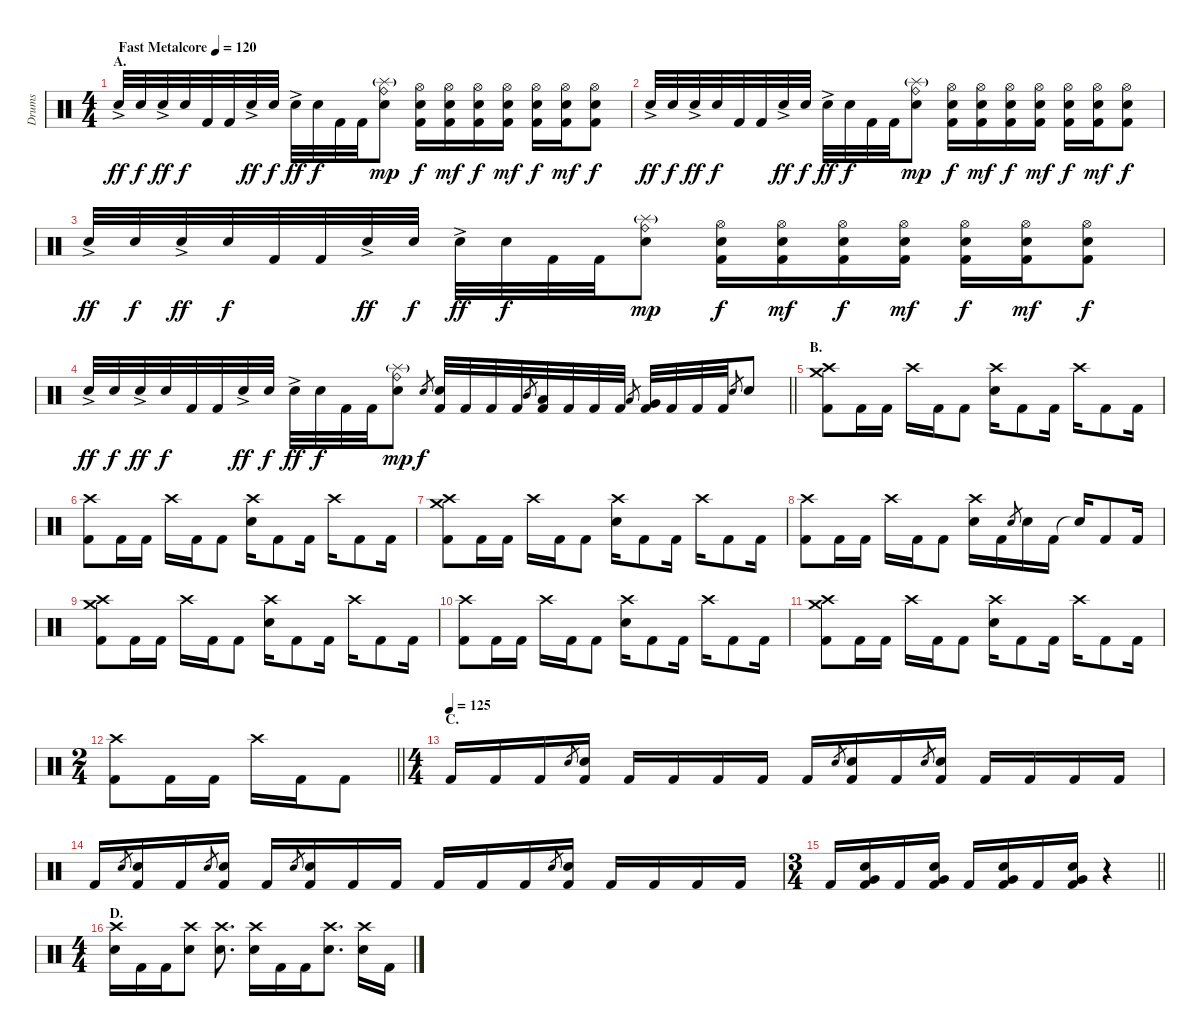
\track ("Drums" "Drums") {instrument percussion}
\staff {score}
\articulation defaults
\ts (4 4)
\section ("" "A.")
\tempo (120 "Fast Metalcore")
\clef neutral
\ks c "Electric Snare (hit)"{ac}.32{dy ff} "Electric Snare (hit)".32{dy f} "Electric Snare (hit)"{ac}.32{dy ff} "Electric Snare (hit)".32{dy f} "Kick (hit) 2".32 "Kick (hit) 2".32 "Electric Snare (hit)"{ac}.32{dy ff} "Electric Snare (hit)".32{dy f} "Electric Snare (hit)"{ac}.32{dy ff} "Electric Snare (hit)".32{dy f} "Kick (hit) 2".32 "Kick (hit) 2".32
("Splash (hit)"{g} "Ride (bell)" "Electric Snare (hit)").8{dy mp} ("Hi-Hat (open)" "Electric Snare (hit)" "Kick (hit) 2").16{dy f} ("Hi-Hat (open)" "Electric Snare (hit)" "Kick (hit) 2").16{dy mf} ("Hi-Hat (open)" "Electric Snare (hit)" "Kick (hit) 2").16{dy f} ("Hi-Hat (open)" "Electric Snare (hit)" "Kick (hit) 2").16{dy mf} ("Hi-Hat (open)" "Electric Snare (hit)" "Kick (hit) 2").16{dy f} ("Hi-Hat (open)" "Electric Snare (hit)" "Kick (hit) 2").16{dy mf} ("Hi-Hat (open)" "Electric Snare (hit)" "Kick (hit) 2").8{dy f} |
"Electric Snare (hit)"{ac}.32{dy ff} "Electric Snare (hit)".32{dy f} "Electric Snare (hit)"{ac}.32{dy ff} "Electric Snare (hit)".32{dy f} "Kick (hit) 2".32 "Kick (hit) 2".32 "Electric Snare (hit)"{ac}.32{dy ff} "Electric Snare (hit)".32{dy f} "Electric Snare (hit)"{ac}.32{dy ff} "Electric Snare (hit)".32{dy f} "Kick (hit) 2".32 "Kick (hit) 2".32 ("Splash (hit)"{g} "Ride (bell)" "Electric Snare (hit)").8{dy mp} ("Hi-Hat (open)" "Electric Snare (hit)" "Kick (hit) 2").16{dy f} ("Hi-Hat (open)" "Electric Snare (hit)" "Kick (hit) 2").16{dy mf} ("Hi-Hat (open)" "Electric Snare (hit)" "Kick (hit) 2").16{dy f} ("Hi-Hat (open)" "Electric Snare (hit)" "Kick (hit) 2").16{dy mf} ("Hi-Hat (open)" "Electric Snare (hit)" "Kick (hit) 2").16{dy f} ("Hi-Hat (open)" "Electric Snare (hit)" "Kick (hit) 2").16{dy mf} ("Hi-Hat (open)" "Electric Snare (hit)" "Kick (hit) 2").8{dy f} |
"Electric Snare (hit)"{ac}.32{dy ff} "Electric Snare (hit)".32{dy f} "Electric Snare (hit)"{ac}.32{dy ff} "Electric Snare (hit)".32{dy f} "Kick (hit) 2".32 "Kick (hit) 2".32 "Electric Snare (hit)"{ac}.32{dy ff} "Electric Snare (hit)".32{dy f} "Electric Snare (hit)"{ac}.32{dy ff} "Electric Snare (hit)".32{dy f} "Kick (hit) 2".32 "Kick (hit) 2".32 ("Splash (hit)"{g} "Ride (bell)" "Electric Snare (hit)").8{dy mp} ("Hi-Hat (open)" "Electric Snare (hit)" "Kick (hit) 2").16{dy f} ("Hi-Hat (open)" "Electric Snare (hit)" "Kick (hit) 2").16{dy mf} ("Hi-Hat (open)" "Electric Snare (hit)" "Kick (hit) 2").16{dy f} ("Hi-Hat (open)" "Electric Snare (hit)" "Kick (hit) 2").16{dy mf} ("Hi-Hat (open)" "Electric Snare (hit)" "Kick (hit) 2").16{dy f} ("Hi-Hat (open)" "Electric Snare (hit)" "Kick (hit) 2").16{dy mf} ("Hi-Hat (open)" "Electric Snare (hit)" "Kick (hit) 2").8{dy f} |
\barLineRight lightlight "Electric Snare (hit)"{ac}.32{dy ff} "Electric Snare (hit)".32{dy f} "Electric Snare (hit)"{ac}.32{dy ff} "Electric Snare (hit)".32{dy f} "Kick (hit) 2".32 "Kick (hit) 2".32 "Electric Snare (hit)"{ac}.32{dy ff} "Electric Snare (hit)".32{dy f} "Electric Snare (hit)"{ac}.32{dy ff} "Electric Snare (hit)".32{dy f} "Kick (hit) 2".32 "Kick (hit) 2".32
("Splash (hit)"{g} "Ride (bell)" "Electric Snare (hit)").8{dy mp} "Electric Snare (hit)".8{gr dy f} ("Electric Snare (hit)" "Kick (hit) 2").32 "Kick (hit) 2".32 "Kick (hit) 2".32 "Kick (hit) 2".32 "Mid Tom (hit)".8{gr} ("Low Tom (hit)" "Kick (hit) 2").32 "Kick (hit) 2".32 "Kick (hit) 2".32 "Kick (hit) 2".32 "Low Tom (hit)".8{gr} ("Very Low Tom (hit)" "Kick (hit) 2").32 "Kick (hit) 2".32 "Kick (hit) 2".32 "Kick (hit) 2".32 "Electric Snare (hit)".8{gr} "Electric Snare (hit)".8 |
\section ("" "B.")
("Crash medium (hit)" "Crash high (hit)" "Kick (hit) 2").8 "Kick (hit) 2".16 "Kick (hit) 2".16 "Crash high (hit)".16 "Kick (hit) 2".16 "Kick (hit) 2".8 ("Crash high (hit)" "Electric Snare (hit)").16 "Kick (hit) 2".8 "Kick (hit) 2".16 "Crash high (hit)".16 "Kick (hit) 2".8 "Kick (hit) 2".16 |
("Crash high (hit)" "Kick (hit) 2").8 "Kick (hit) 2".16 "Kick (hit) 2".16 "Crash high (hit)".16 "Kick (hit) 2".16 "Kick (hit) 2".8 ("Crash high (hit)" "Electric Snare (hit)").16 "Kick (hit) 2".8 "Kick (hit) 2".16 "Crash high (hit)".16 "Kick (hit) 2".8 "Kick (hit) 2".16 |
("Crash medium (hit)" "Crash high (hit)" "Kick (hit) 2").8 "Kick (hit) 2".16 "Kick (hit) 2".16 "Crash high (hit)".16 "Kick (hit) 2".16 "Kick (hit) 2".8 ("Crash high (hit)" "Electric Snare (hit)").16 "Kick (hit) 2".8 "Kick (hit) 2".16 "Crash high (hit)".16 "Kick (hit) 2".8 "Kick (hit) 2".16 |
("Crash high (hit)" "Kick (hit) 2").8 "Kick (hit) 2".16 "Kick (hit) 2".16 "Crash high (hit)".16 "Kick (hit) 2".16 "Kick (hit) 2".8 ("Crash high (hit)" "Electric Snare (hit)").16 "Kick (hit) 2".16 "Electric Snare (hit)".8{gr} "Electric Snare (hit)".16 "Kick (hit) 2".16 "Snare (hit)"{t}.16 "Kick (hit) 2".8 "Kick (hit) 2".16 |
("Crash medium (hit)" "Crash high (hit)" "Kick (hit) 2").8 "Kick (hit) 2".16 "Kick (hit) 2".16 "Crash high (hit)".16 "Kick (hit) 2".16 "Kick (hit) 2".8 ("Crash high (hit)" "Electric Snare (hit)").16 "Kick (hit) 2".8 "Kick (hit) 2".16 "Crash high (hit)".16 "Kick (hit) 2".8 "Kick (hit) 2".16 |
("Crash high (hit)" "Kick (hit) 2").8 "Kick (hit) 2".16 "Kick (hit) 2".16 "Crash high (hit)".16 "Kick (hit) 2".16 "Kick (hit) 2".8 ("Crash high (hit)" "Electric Snare (hit)").16 "Kick (hit) 2".8 "Kick (hit) 2".16 "Crash high (hit)".16 "Kick (hit) 2".8 "Kick (hit) 2".16 |
("Crash medium (hit)" "Crash high (hit)" "Kick (hit) 2").8 "Kick (hit) 2".16 "Kick (hit) 2".16 "Crash high (hit)".16 "Kick (hit) 2".16 "Kick (hit) 2".8 ("Crash high (hit)" "Electric Snare (hit)").16 "Kick (hit) 2".8 "Kick (hit) 2".16 "Crash high (hit)".16 "Kick (hit) 2".8 "Kick (hit) 2".16 |
\ts (2 4)
\barLineRight lightlight
("Crash high (hit)" "Kick (hit) 2").8 "Kick (hit) 2".16 "Kick (hit) 2".16 "Crash high (hit)".16 "Kick (hit) 2".16 "Kick (hit) 2".8 |
\ts (4 4)
\section ("" "C.")
\tempo (125)
"Kick (hit) 2".16 "Kick (hit) 2".16 "Kick (hit) 2".16 "Electric Snare (hit)".8{gr} ("Electric Snare (hit)" "Kick (hit) 2").16 "Kick (hit) 2".16 "Kick (hit) 2".16 "Kick (hit) 2".16 "Kick (hit) 2".16 "Kick (hit) 2".16 "Electric Snare (hit)".8{gr} ("Electric Snare (hit)" "Kick (hit) 2").16 "Kick (hit) 2".16 "Electric Snare (hit)".8{gr} ("Electric Snare (hit)" "Kick (hit) 2").16 "Kick (hit) 2".16 "Kick (hit) 2".16 "Kick (hit) 2".16 "Kick (hit) 2".16 |
"Kick (hit) 2".16 "Electric Snare (hit)".8{gr} ("Electric Snare (hit)" "Kick (hit) 2").16 "Kick (hit) 2".16 "Electric Snare (hit)".8{gr} ("Electric Snare (hit)" "Kick (hit) 2").16 "Kick (hit) 2".16 "Electric Snare (hit)".8{gr} ("Electric Snare (hit)" "Kick (hit) 2").16 "Kick (hit) 2".16 "Kick (hit) 2".16 "Kick (hit) 2".16 "Kick (hit) 2".16 "Kick (hit) 2".16 "Electric Snare (hit)".8{gr} ("Electric Snare (hit)" "Kick (hit) 2").16 "Kick (hit) 2".16 "Kick (hit) 2".16 "Kick (hit) 2".16 "Kick (hit) 2".16 |
\ts (3 4)
\barLineRight lightlight "Kick (hit) 2".16
("Very Low Tom (hit)" "Electric Snare (hit)" "Kick (hit) 2").16 "Kick (hit) 2".16 ("Very Low Tom (hit)" "Electric Snare (hit)" "Kick (hit) 2").16 "Kick (hit) 2".16 ("Very Low Tom (hit)" "Electric Snare (hit)" "Kick (hit) 2").16 "Kick (hit) 2".16 ("Very Low Tom (hit)" "Electric Snare (hit)" "Kick (hit) 2").16 r.4 |
\ts (4 4)
\section ("" "D.")
("Crash high (hit)" "Electric Snare (hit)").16 "Kick (hit) 2".16 "Kick (hit) 2".16 ("Crash high (hit)" "Electric Snare (hit)").8 ("Crash high (hit)" "Electric Snare (hit)").8{d} ("Crash high (hit)" "Electric Snare (hit)").16 "Kick (hit) 2".16 "Kick (hit) 2".16 ("Crash high (hit)" "Electric Snare (hit)").8{d} ("Crash high (hit)" "Electric Snare (hit)").16 "Kick (hit) 2".16
